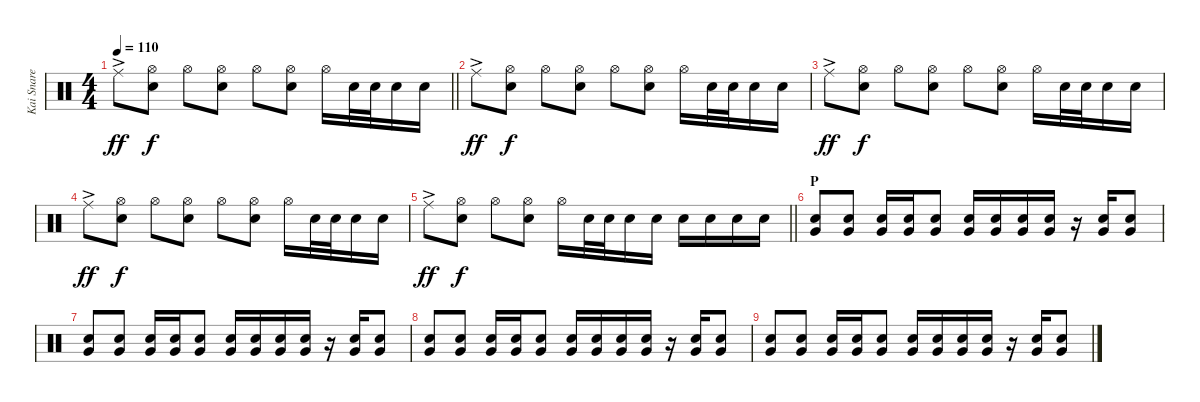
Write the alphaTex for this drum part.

\track ("Kai Snare" "Kai Snare") {instrument percussion}
\staff {score}
\articulation defaults
\ts (4 4)
\tempo 110
\clef neutral
\barLineRight lightlight
\ks c "Ride (middle)"{ac}.8{dy ff}
("Hi-Hat (open)" "Snare (hit) 2").8{dy f} "Hi-Hat (open)".8 ("Hi-Hat (open)" "Snare (hit) 2").8 "Hi-Hat (open)".8 ("Hi-Hat (open)" "Snare (hit) 2").8 "Hi-Hat (open)".16 "Snare (hit) 2".32 "Snare (hit) 2".32 "Snare (hit) 2".16 "Snare (hit) 2".16 |
"Ride (middle)"{ac}.8{dy ff} ("Hi-Hat (open)" "Snare (hit) 2").8{dy f} "Hi-Hat (open)".8 ("Hi-Hat (open)" "Snare (hit) 2").8 "Hi-Hat (open)".8 ("Hi-Hat (open)" "Snare (hit) 2").8 "Hi-Hat (open)".16 "Snare (hit) 2".32 "Snare (hit) 2".32 "Snare (hit) 2".16 "Snare (hit) 2".16 |
"Ride (middle)"{ac}.8{dy ff} ("Hi-Hat (open)" "Snare (hit) 2").8{dy f} "Hi-Hat (open)".8 ("Hi-Hat (open)" "Snare (hit) 2").8 "Hi-Hat (open)".8 ("Hi-Hat (open)" "Snare (hit) 2").8 "Hi-Hat (open)".16 "Snare (hit) 2".32 "Snare (hit) 2".32 "Snare (hit) 2".16 "Snare (hit) 2".16 |
"Ride (middle)"{ac}.8{dy ff} ("Hi-Hat (open)" "Snare (hit) 2").8{dy f} "Hi-Hat (open)".8 ("Hi-Hat (open)" "Snare (hit) 2").8 "Hi-Hat (open)".8 ("Hi-Hat (open)" "Snare (hit) 2").8 "Hi-Hat (open)".16 "Snare (hit) 2".32 "Snare (hit) 2".32 "Snare (hit) 2".16 "Snare (hit) 2".16 |
\barLineRight lightlight "Ride (middle)"{ac}.8{dy ff}
("Hi-Hat (open)" "Snare (hit) 2").8{dy f} "Hi-Hat (open)".8 ("Hi-Hat (open)" "Snare (hit) 2").8 "Hi-Hat (open)".16 "Snare (hit) 2".32 "Snare (hit) 2".32 "Snare (hit) 2".16 "Snare (hit) 2".16 "Snare (hit) 2".16 "Snare (hit) 2".16 "Snare (hit) 2".16 "Snare (hit) 2".16 |
\section ("" "P")
("Very Low Tom (hit)" "Hand Clap (hit)").8 ("Very Low Tom (hit)" "Hand Clap (hit)").8 ("Very Low Tom (hit)" "Hand Clap (hit)").16 ("Very Low Tom (hit)" "Hand Clap (hit)").16 ("Very Low Tom (hit)" "Hand Clap (hit)").8 ("Very Low Tom (hit)" "Hand Clap (hit)").16 ("Very Low Tom (hit)" "Hand Clap (hit)").16 ("Very Low Tom (hit)" "Hand Clap (hit)").16 ("Very Low Tom (hit)" "Hand Clap (hit)").16 r.16 ("Very Low Tom (hit)" "Hand Clap (hit)").16 ("Very Low Tom (hit)" "Hand Clap (hit)").8 |
("Very Low Tom (hit)" "Hand Clap (hit)").8 ("Very Low Tom (hit)" "Hand Clap (hit)").8 ("Very Low Tom (hit)" "Hand Clap (hit)").16 ("Very Low Tom (hit)" "Hand Clap (hit)").16 ("Very Low Tom (hit)" "Hand Clap (hit)").8 ("Very Low Tom (hit)" "Hand Clap (hit)").16 ("Very Low Tom (hit)" "Hand Clap (hit)").16 ("Very Low Tom (hit)" "Hand Clap (hit)").16 ("Very Low Tom (hit)" "Hand Clap (hit)").16 r.16 ("Very Low Tom (hit)" "Hand Clap (hit)").16 ("Very Low Tom (hit)" "Hand Clap (hit)").8 |
("Very Low Tom (hit)" "Hand Clap (hit)").8 ("Very Low Tom (hit)" "Hand Clap (hit)").8 ("Very Low Tom (hit)" "Hand Clap (hit)").16 ("Very Low Tom (hit)" "Hand Clap (hit)").16 ("Very Low Tom (hit)" "Hand Clap (hit)").8 ("Very Low Tom (hit)" "Hand Clap (hit)").16 ("Very Low Tom (hit)" "Hand Clap (hit)").16 ("Very Low Tom (hit)" "Hand Clap (hit)").16 ("Very Low Tom (hit)" "Hand Clap (hit)").16 r.16 ("Very Low Tom (hit)" "Hand Clap (hit)").16 ("Very Low Tom (hit)" "Hand Clap (hit)").8 |
("Very Low Tom (hit)" "Hand Clap (hit)").8 ("Very Low Tom (hit)" "Hand Clap (hit)").8 ("Very Low Tom (hit)" "Hand Clap (hit)").16 ("Very Low Tom (hit)" "Hand Clap (hit)").16 ("Very Low Tom (hit)" "Hand Clap (hit)").8 ("Very Low Tom (hit)" "Hand Clap (hit)").16 ("Very Low Tom (hit)" "Hand Clap (hit)").16 ("Very Low Tom (hit)" "Hand Clap (hit)").16 ("Very Low Tom (hit)" "Hand Clap (hit)").16 r.16 ("Very Low Tom (hit)" "Hand Clap (hit)").16 ("Very Low Tom (hit)" "Hand Clap (hit)").8
